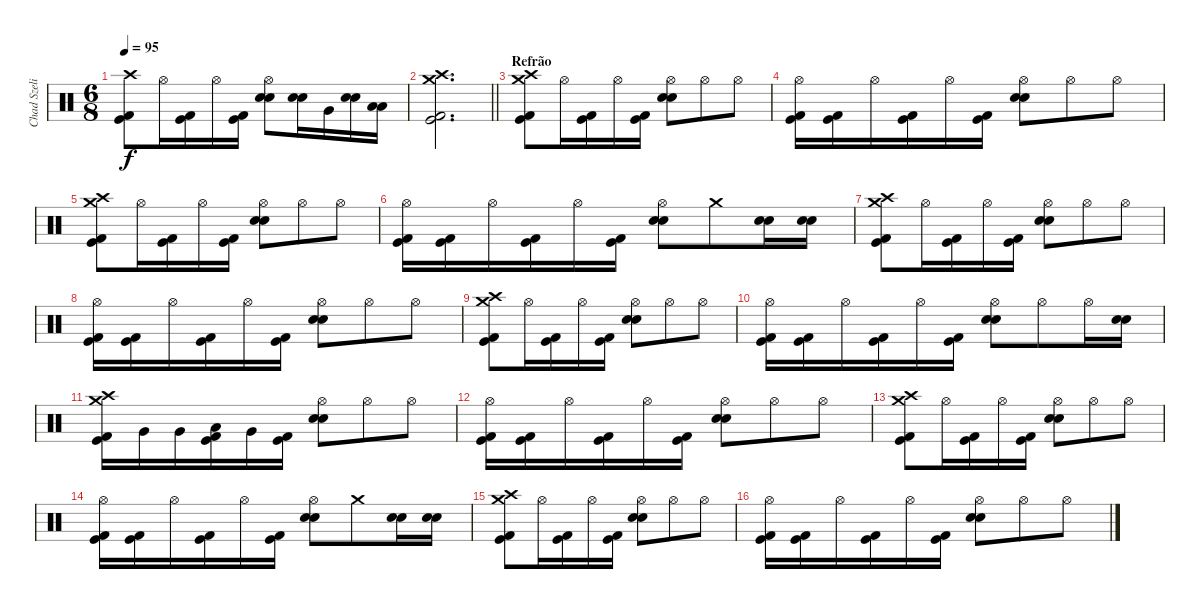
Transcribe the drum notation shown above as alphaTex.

\track ("Chad Szeliga" "Chad Szeli") {instrument percussion}
\staff {score}
\articulation defaults
\ts (6 8)
\tempo 95
\clef neutral
\ks c
("Crash high (hit)" "Kick (hit) 2" "Kick (hit)").8{dy f} "Hi-Hat (open)".16 ("Kick (hit) 2" "Kick (hit)").16 "Hi-Hat (open)".16 ("Kick (hit) 2" "Kick (hit)").16 ("Snare (hit) 2" "Snare (hit) 2" "Hi-Hat (open)").8 ("Snare (hit) 2" "Snare (hit) 2").16 "Very Low Tom (hit)".16 ("Snare (hit) 2" "Snare (hit) 2").16 ("Low Tom (hit)" "Low Tom (hit)").16 |
\barLineRight lightlight
("Crash medium (hit)" "Kick (hit) 2" "Kick (hit)" "Crash high (hit)").2{d} |
\section ("" "Refrão")
("Crash high (hit)" "Kick (hit) 2" "Kick (hit)" "Crash medium (hit)").8 "Hi-Hat (open)".16 ("Kick (hit) 2" "Kick (hit)").16 "Hi-Hat (open)".16 ("Kick (hit) 2" "Kick (hit)").16 ("Snare (hit) 2" "Snare (hit) 2" "Hi-Hat (open)").8 "Hi-Hat (open)".8 "Hi-Hat (open)".8 |
("Kick (hit) 2" "Kick (hit)" "Hi-Hat (open)").16 ("Kick (hit) 2" "Kick (hit)").16 "Hi-Hat (open)".16 ("Kick (hit) 2" "Kick (hit)").16 "Hi-Hat (open)".16 ("Kick (hit) 2" "Kick (hit)").16 ("Snare (hit) 2" "Snare (hit) 2" "Hi-Hat (open)").8 "Hi-Hat (open)".8 "Hi-Hat (open)".8 |
("Crash high (hit)" "Kick (hit) 2" "Kick (hit)" "Crash medium (hit)").8 "Hi-Hat (open)".16 ("Kick (hit) 2" "Kick (hit)").16 "Hi-Hat (open)".16 ("Kick (hit) 2" "Kick (hit)").16 ("Snare (hit) 2" "Snare (hit) 2" "Hi-Hat (open)").8 "Hi-Hat (open)".8 "Hi-Hat (open)".8 |
("Kick (hit) 2" "Kick (hit)" "Hi-Hat (open)").16 ("Kick (hit) 2" "Kick (hit)").16 "Hi-Hat (open)".16 ("Kick (hit) 2" "Kick (hit)").16 "Hi-Hat (open)".16 ("Kick (hit) 2" "Kick (hit)").16 ("Snare (hit) 2" "Snare (hit) 2" "Hi-Hat (open)").8 "Crash medium (hit)".8 ("Snare (hit) 2" "Snare (hit) 2").16 ("Snare (hit) 2" "Snare (hit) 2").16 |
("Crash high (hit)" "Kick (hit) 2" "Kick (hit)" "Crash medium (hit)").8 "Hi-Hat (open)".16 ("Kick (hit) 2" "Kick (hit)").16 "Hi-Hat (open)".16 ("Kick (hit) 2" "Kick (hit)").16 ("Snare (hit) 2" "Snare (hit) 2" "Hi-Hat (open)").8 "Hi-Hat (open)".8 "Hi-Hat (open)".8 |
("Kick (hit) 2" "Kick (hit)" "Hi-Hat (open)").16 ("Kick (hit) 2" "Kick (hit)").16 "Hi-Hat (open)".16 ("Kick (hit) 2" "Kick (hit)").16 "Hi-Hat (open)".16 ("Kick (hit) 2" "Kick (hit)").16 ("Snare (hit) 2" "Snare (hit) 2" "Hi-Hat (open)").8 "Hi-Hat (open)".8 "Hi-Hat (open)".8 |
("Crash high (hit)" "Kick (hit) 2" "Kick (hit)" "Crash medium (hit)").8 "Hi-Hat (open)".16 ("Kick (hit) 2" "Kick (hit)").16 "Hi-Hat (open)".16 ("Kick (hit) 2" "Kick (hit)").16 ("Snare (hit) 2" "Snare (hit) 2" "Hi-Hat (open)").8 "Hi-Hat (open)".8 "Hi-Hat (open)".8 |
("Kick (hit) 2" "Kick (hit)" "Hi-Hat (open)").16 ("Kick (hit) 2" "Kick (hit)").16 "Hi-Hat (open)".16 ("Kick (hit) 2" "Kick (hit)").16 "Hi-Hat (open)".16 ("Kick (hit) 2" "Kick (hit)").16 ("Snare (hit) 2" "Snare (hit) 2" "Hi-Hat (open)").8 "Hi-Hat (open)".8 "Hi-Hat (open)".16 ("Snare (hit) 2" "Snare (hit) 2").16 |
("Crash high (hit)" "Kick (hit) 2" "Kick (hit)" "Crash medium (hit)").16 "Very Low Tom (hit)".16 "Very Low Tom (hit)".16 ("Kick (hit) 2" "Kick (hit)" "Low Tom (hit)").16 "Very Low Tom (hit)".16 ("Kick (hit) 2" "Kick (hit)").16 ("Snare (hit) 2" "Snare (hit) 2" "Hi-Hat (open)").8 "Hi-Hat (open)".8 "Hi-Hat (open)".8 |
("Kick (hit) 2" "Kick (hit)" "Hi-Hat (open)").16 ("Kick (hit) 2" "Kick (hit)").16 "Hi-Hat (open)".16 ("Kick (hit) 2" "Kick (hit)").16 "Hi-Hat (open)".16 ("Kick (hit) 2" "Kick (hit)").16 ("Snare (hit) 2" "Snare (hit) 2" "Hi-Hat (open)").8 "Hi-Hat (open)".8 "Hi-Hat (open)".8 |
("Crash high (hit)" "Kick (hit) 2" "Kick (hit)" "Crash medium (hit)").8 "Hi-Hat (open)".16 ("Kick (hit) 2" "Kick (hit)").16 "Hi-Hat (open)".16 ("Kick (hit) 2" "Kick (hit)").16 ("Snare (hit) 2" "Snare (hit) 2" "Hi-Hat (open)").8 "Hi-Hat (open)".8 "Hi-Hat (open)".8 |
("Kick (hit) 2" "Kick (hit)" "Hi-Hat (open)").16 ("Kick (hit) 2" "Kick (hit)").16 "Hi-Hat (open)".16 ("Kick (hit) 2" "Kick (hit)").16 "Hi-Hat (open)".16 ("Kick (hit) 2" "Kick (hit)").16 ("Snare (hit) 2" "Snare (hit) 2" "Hi-Hat (open)").8 "Crash medium (hit)".8 ("Snare (hit) 2" "Snare (hit) 2").16 ("Snare (hit) 2" "Snare (hit) 2").16 |
("Crash high (hit)" "Kick (hit) 2" "Kick (hit)" "Crash medium (hit)").8 "Hi-Hat (open)".16 ("Kick (hit) 2" "Kick (hit)").16 "Hi-Hat (open)".16 ("Kick (hit) 2" "Kick (hit)").16 ("Snare (hit) 2" "Snare (hit) 2" "Hi-Hat (open)").8 "Hi-Hat (open)".8 "Hi-Hat (open)".8 |
("Kick (hit) 2" "Kick (hit)" "Hi-Hat (open)").16 ("Kick (hit) 2" "Kick (hit)").16 "Hi-Hat (open)".16 ("Kick (hit) 2" "Kick (hit)").16 "Hi-Hat (open)".16 ("Kick (hit) 2" "Kick (hit)").16 ("Snare (hit) 2" "Snare (hit) 2" "Hi-Hat (open)").8 "Hi-Hat (open)".8 "Hi-Hat (open)".8
